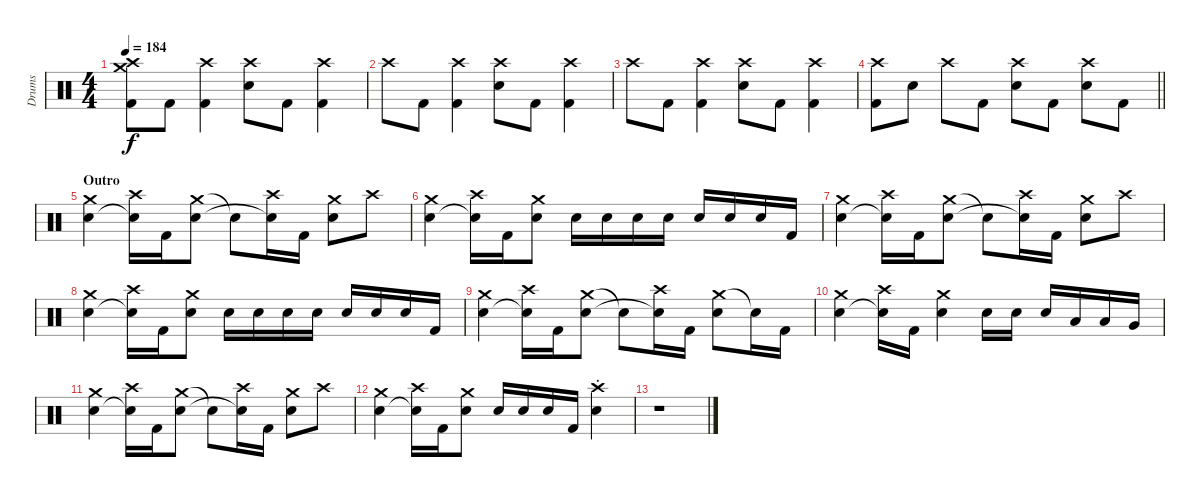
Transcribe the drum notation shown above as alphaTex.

\track ("Drums" "Drums") {instrument percussion}
\staff {score}
\articulation defaults
\ts (4 4)
\tempo 184
\clef neutral
\ks c
("Crash medium (hit)" "Crash high (hit)" "Kick (hit) 2").8{dy f} "Kick (hit) 2".8 ("Crash high (hit)" "Kick (hit) 2").4 ("Crash high (hit)" "Electric Snare (hit)").8 "Kick (hit) 2".8 ("Crash high (hit)" "Kick (hit) 2").4 |
"Crash high (hit)".8 "Kick (hit) 2".8 ("Crash high (hit)" "Kick (hit) 2").4 ("Crash high (hit)" "Electric Snare (hit)").8 "Kick (hit) 2".8 ("Crash high (hit)" "Kick (hit) 2").4 |
"Crash high (hit)".8 "Kick (hit) 2".8 ("Crash high (hit)" "Kick (hit) 2").4 ("Crash high (hit)" "Electric Snare (hit)").8 "Kick (hit) 2".8 ("Crash high (hit)" "Kick (hit) 2").4 |
\barLineRight lightlight
("Crash high (hit)" "Kick (hit) 2").8 "Electric Snare (hit)".8 "Crash high (hit)".8 "Kick (hit) 2".8 ("Crash high (hit)" "Electric Snare (hit)").8 "Kick (hit) 2".8 ("Crash high (hit)" "Electric Snare (hit)").8 "Kick (hit) 2".8 |
\section ("" "Outro")
("Crash medium (hit)" "Electric Snare (hit)").4 ("Crash high (hit)" "Electric Snare (hit)"{t}).16 "Kick (hit) 2".16 ("Crash medium (hit)" "Electric Snare (hit)").8 "Electric Snare (hit)"{t}.8 ("Crash high (hit)" "Snare (hit)"{t}).16 "Kick (hit) 2".16 ("Crash medium (hit)" "Electric Snare (hit)").8 "Crash high (hit)".8 |
("Crash medium (hit)" "Electric Snare (hit)").4 ("Crash high (hit)" "Electric Snare (hit)"{t}).16 "Kick (hit) 2".16 ("Crash medium (hit)" "Electric Snare (hit)").8 "Electric Snare (hit)".16 "Electric Snare (hit)".16 "Electric Snare (hit)".16 "Electric Snare (hit)".16 "Electric Snare (hit)".16 "Electric Snare (hit)".16 "Electric Snare (hit)".16 "Kick (hit) 2".16 |
("Crash medium (hit)" "Electric Snare (hit)").4 ("Crash high (hit)" "Electric Snare (hit)"{t}).16 "Kick (hit) 2".16 ("Crash medium (hit)" "Electric Snare (hit)").8 "Electric Snare (hit)"{t}.8 ("Crash high (hit)" "Snare (hit)"{t}).16 "Kick (hit) 2".16 ("Crash medium (hit)" "Electric Snare (hit)").8 "Crash high (hit)".8 |
("Crash medium (hit)" "Electric Snare (hit)").4 ("Crash high (hit)" "Electric Snare (hit)"{t}).16 "Kick (hit) 2".16 ("Crash medium (hit)" "Electric Snare (hit)").8 "Electric Snare (hit)".16 "Electric Snare (hit)".16 "Electric Snare (hit)".16 "Electric Snare (hit)".16 "Electric Snare (hit)".16 "Electric Snare (hit)".16 "Electric Snare (hit)".16 "Kick (hit) 2".16 |
("Crash medium (hit)" "Electric Snare (hit)").4 ("Crash high (hit)" "Electric Snare (hit)"{t}).16 "Kick (hit) 2".16 ("Crash medium (hit)" "Electric Snare (hit)").8 "Electric Snare (hit)"{t}.8 ("Crash high (hit)" "Snare (hit)"{t}).16 "Kick (hit) 2".16 ("Crash medium (hit)" "Electric Snare (hit)").8 "Snare (hit)"{t}.16 "Kick (hit) 2".16 |
("Crash medium (hit)" "Electric Snare (hit)").4 ("Crash high (hit)" "Electric Snare (hit)"{t}).16 "Kick (hit) 2".16 ("Crash medium (hit)" "Electric Snare (hit)").4 "Electric Snare (hit)".16 "Electric Snare (hit)".16 "Electric Snare (hit)".16 "Low Tom (hit)".16 "Low Tom (hit)".16 "Very Low Tom (hit)".16 |
("Crash medium (hit)" "Electric Snare (hit)").4 ("Crash high (hit)" "Electric Snare (hit)"{t}).16 "Kick (hit) 2".16 ("Crash medium (hit)" "Electric Snare (hit)").8 "Electric Snare (hit)"{t}.8 ("Crash high (hit)" "Snare (hit)"{t}).16 "Kick (hit) 2".16 ("Crash medium (hit)" "Electric Snare (hit)").8 "Crash high (hit)".8 |
("Crash medium (hit)" "Electric Snare (hit)").4 ("Crash high (hit)" "Electric Snare (hit)"{t}).16 "Kick (hit) 2".16 ("Crash medium (hit)" "Electric Snare (hit)").8 "Electric Snare (hit)".16 "Electric Snare (hit)".16 "Electric Snare (hit)".16 "Kick (hit) 2".16 ("Crash high (hit)"{st} "Electric Snare (hit)").4 |
r.1{volume 0}
